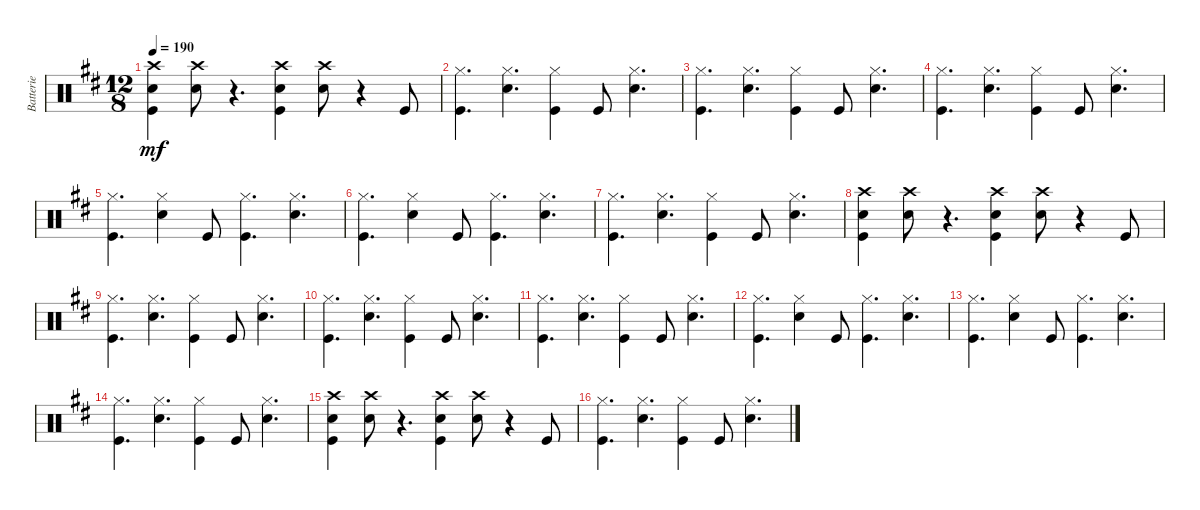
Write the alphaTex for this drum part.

\track ("Batterie" "Batterie") {instrument percussion}
\staff {score}
\articulation defaults
\ts (12 8)
\tempo 190
\clef neutral
\ks d
("Crash high (hit)" "Snare (hit) 2" "Kick (hit)").4{dy mf} ("Crash high (hit)" "Snare (hit) 2").8 r.4{d} ("Crash high (hit)" "Snare (hit) 2" "Kick (hit)").4 ("Crash high (hit)" "Snare (hit) 2").8 r.4 "Kick (hit)".8 |
("Hi-Hat (closed)" "Kick (hit)").4{d} ("Hi-Hat (closed)" "Snare (hit) 2").4{d} ("Hi-Hat (closed)" "Kick (hit)").4 "Kick (hit)".8 ("Hi-Hat (closed)" "Snare (hit) 2").4{d} |
("Hi-Hat (closed)" "Kick (hit)").4{d} ("Hi-Hat (closed)" "Snare (hit) 2").4{d} ("Hi-Hat (closed)" "Kick (hit)").4 "Kick (hit)".8 ("Hi-Hat (closed)" "Snare (hit) 2").4{d} |
("Hi-Hat (closed)" "Kick (hit)").4{d} ("Hi-Hat (closed)" "Snare (hit) 2").4{d} ("Hi-Hat (closed)" "Kick (hit)").4 "Kick (hit)".8 ("Hi-Hat (closed)" "Snare (hit) 2").4{d} |
("Hi-Hat (closed)" "Kick (hit)").4{d} ("Hi-Hat (closed)" "Snare (hit) 2").4 "Kick (hit)".8 ("Hi-Hat (closed)" "Kick (hit)").4{d} ("Hi-Hat (closed)" "Snare (hit) 2").4{d} |
("Hi-Hat (closed)" "Kick (hit)").4{d} ("Hi-Hat (closed)" "Snare (hit) 2").4 "Kick (hit)".8 ("Hi-Hat (closed)" "Kick (hit)").4{d} ("Hi-Hat (closed)" "Snare (hit) 2").4{d} |
("Hi-Hat (closed)" "Kick (hit)").4{d} ("Hi-Hat (closed)" "Snare (hit) 2").4{d} ("Hi-Hat (closed)" "Kick (hit)").4 "Kick (hit)".8 ("Hi-Hat (closed)" "Snare (hit) 2").4{d} |
("Crash high (hit)" "Snare (hit) 2" "Kick (hit)").4 ("Crash high (hit)" "Snare (hit) 2").8 r.4{d} ("Crash high (hit)" "Snare (hit) 2" "Kick (hit)").4 ("Crash high (hit)" "Snare (hit) 2").8 r.4 "Kick (hit)".8 |
("Hi-Hat (closed)" "Kick (hit)").4{d} ("Hi-Hat (closed)" "Snare (hit) 2").4{d} ("Hi-Hat (closed)" "Kick (hit)").4 "Kick (hit)".8 ("Hi-Hat (closed)" "Snare (hit) 2").4{d} |
("Hi-Hat (closed)" "Kick (hit)").4{d} ("Hi-Hat (closed)" "Snare (hit) 2").4{d} ("Hi-Hat (closed)" "Kick (hit)").4 "Kick (hit)".8 ("Hi-Hat (closed)" "Snare (hit) 2").4{d} |
("Hi-Hat (closed)" "Kick (hit)").4{d} ("Hi-Hat (closed)" "Snare (hit) 2").4{d} ("Hi-Hat (closed)" "Kick (hit)").4 "Kick (hit)".8 ("Hi-Hat (closed)" "Snare (hit) 2").4{d} |
("Hi-Hat (closed)" "Kick (hit)").4{d} ("Hi-Hat (closed)" "Snare (hit) 2").4 "Kick (hit)".8 ("Hi-Hat (closed)" "Kick (hit)").4{d} ("Hi-Hat (closed)" "Snare (hit) 2").4{d} |
("Hi-Hat (closed)" "Kick (hit)").4{d} ("Hi-Hat (closed)" "Snare (hit) 2").4 "Kick (hit)".8 ("Hi-Hat (closed)" "Kick (hit)").4{d} ("Hi-Hat (closed)" "Snare (hit) 2").4{d} |
("Hi-Hat (closed)" "Kick (hit)").4{d} ("Hi-Hat (closed)" "Snare (hit) 2").4{d} ("Hi-Hat (closed)" "Kick (hit)").4 "Kick (hit)".8 ("Hi-Hat (closed)" "Snare (hit) 2").4{d} |
("Crash high (hit)" "Snare (hit) 2" "Kick (hit)").4 ("Crash high (hit)" "Snare (hit) 2").8 r.4{d} ("Crash high (hit)" "Snare (hit) 2" "Kick (hit)").4 ("Crash high (hit)" "Snare (hit) 2").8 r.4 "Kick (hit)".8 |
("Hi-Hat (closed)" "Kick (hit)").4{d} ("Hi-Hat (closed)" "Snare (hit) 2").4{d} ("Hi-Hat (closed)" "Kick (hit)").4 "Kick (hit)".8 ("Hi-Hat (closed)" "Snare (hit) 2").4{d}
